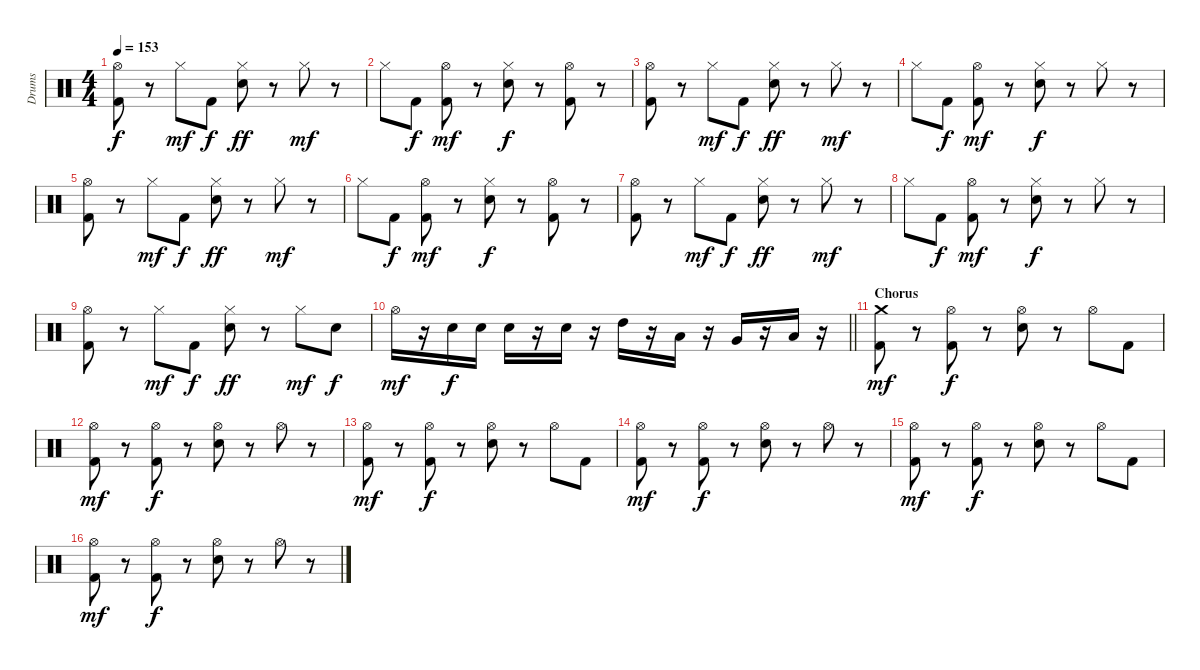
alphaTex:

\track ("Drums" "Drums") {instrument percussion}
\staff {score}
\articulation defaults
\ts (4 4)
\tempo 153
\clef neutral
\ks c
("Hi-Hat (open)" "Kick (hit) 2").8{dy f} r.8 "Hi-Hat (closed)".8{dy mf} "Kick (hit) 2".8{dy f} ("Hi-Hat (closed)" "Electric Snare (hit)").8{dy ff} r.8 "Hi-Hat (closed)".8{dy mf} r.8 |
"Hi-Hat (closed)".8 "Kick (hit) 2".8{dy f} ("Hi-Hat (open)" "Kick (hit) 2").8{dy mf} r.8 ("Hi-Hat (closed)" "Electric Snare (hit)").8{dy f} r.8 ("Hi-Hat (open)" "Kick (hit) 2").8 r.8 |
("Hi-Hat (open)" "Kick (hit) 2").8 r.8 "Hi-Hat (closed)".8{dy mf} "Kick (hit) 2".8{dy f} ("Hi-Hat (closed)" "Electric Snare (hit)").8{dy ff} r.8 "Hi-Hat (closed)".8{dy mf} r.8 |
"Hi-Hat (closed)".8 "Kick (hit) 2".8{dy f} ("Hi-Hat (open)" "Kick (hit) 2").8{dy mf} r.8 ("Hi-Hat (closed)" "Electric Snare (hit)").8{dy f} r.8 "Hi-Hat (closed)".8 r.8 |
("Hi-Hat (open)" "Kick (hit) 2").8 r.8 "Hi-Hat (closed)".8{dy mf} "Kick (hit) 2".8{dy f} ("Hi-Hat (closed)" "Electric Snare (hit)").8{dy ff} r.8 "Hi-Hat (closed)".8{dy mf} r.8 |
"Hi-Hat (closed)".8 "Kick (hit) 2".8{dy f} ("Hi-Hat (open)" "Kick (hit) 2").8{dy mf} r.8 ("Hi-Hat (closed)" "Electric Snare (hit)").8{dy f} r.8 ("Hi-Hat (open)" "Kick (hit) 2").8 r.8 |
("Hi-Hat (open)" "Kick (hit) 2").8 r.8 "Hi-Hat (closed)".8{dy mf} "Kick (hit) 2".8{dy f} ("Hi-Hat (closed)" "Electric Snare (hit)").8{dy ff} r.8 "Hi-Hat (closed)".8{dy mf} r.8 |
"Hi-Hat (closed)".8 "Kick (hit) 2".8{dy f} ("Hi-Hat (open)" "Kick (hit) 2").8{dy mf} r.8 ("Hi-Hat (closed)" "Electric Snare (hit)").8{dy f} r.8 "Hi-Hat (closed)".8 r.8 |
("Hi-Hat (open)" "Kick (hit) 2").8 r.8 "Hi-Hat (closed)".8{dy mf} "Kick (hit) 2".8{dy f} ("Hi-Hat (closed)" "Electric Snare (hit)").8{dy ff} r.8 "Hi-Hat (closed)".8{dy mf} "Electric Snare (hit)".8{dy f} |
\barLineRight lightlight "Hi-Hat (open)".16{dy mf}
r.16 "Electric Snare (hit)".16{dy f} "Electric Snare (hit)".16 "Electric Snare (hit)".16 r.16 "Electric Snare (hit)".16 r.16 "High Tom (hit)".16 r.16 "Low Tom (hit)".16 r.16 "Very Low Tom (hit)".16 r.16 "Low Floor Tom (hit)".16 r.16 |
\section ("" "Chorus")
("Crash medium (hit)" "Kick (hit) 2").8{dy mf} r.8 ("Hi-Hat (open)" "Kick (hit) 2").8{dy f} r.8 ("Hi-Hat (open)" "Electric Snare (hit)").8 r.8 "Hi-Hat (open)".8 "Kick (hit) 2".8 |
("Hi-Hat (open)" "Kick (hit) 2").8{dy mf} r.8 ("Hi-Hat (open)" "Kick (hit) 2").8{dy f} r.8 ("Hi-Hat (open)" "Electric Snare (hit)").8 r.8 "Hi-Hat (open)".8 r.8 |
("Hi-Hat (open)" "Kick (hit) 2").8{dy mf} r.8 ("Hi-Hat (open)" "Kick (hit) 2").8{dy f} r.8 ("Hi-Hat (open)" "Electric Snare (hit)").8 r.8 "Hi-Hat (open)".8 "Kick (hit) 2".8 |
("Hi-Hat (open)" "Kick (hit) 2").8{dy mf} r.8 ("Hi-Hat (open)" "Kick (hit) 2").8{dy f} r.8 ("Hi-Hat (open)" "Electric Snare (hit)").8 r.8 "Hi-Hat (open)".8 r.8 |
("Hi-Hat (open)" "Kick (hit) 2").8{dy mf} r.8 ("Hi-Hat (open)" "Kick (hit) 2").8{dy f} r.8 ("Hi-Hat (open)" "Electric Snare (hit)").8 r.8 "Hi-Hat (open)".8 "Kick (hit) 2".8 |
("Hi-Hat (open)" "Kick (hit) 2").8{dy mf} r.8 ("Hi-Hat (open)" "Kick (hit) 2").8{dy f} r.8 ("Hi-Hat (open)" "Electric Snare (hit)").8 r.8 "Hi-Hat (open)".8 r.8
